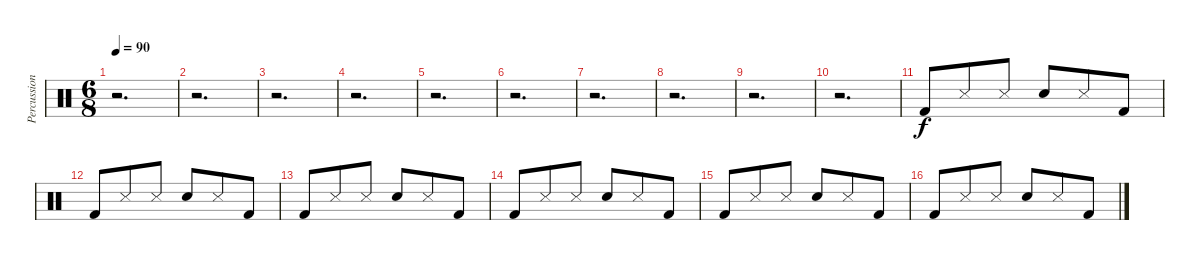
\track ("Percussion" "Percussion") {instrument percussion}
\staff {score}
\articulation defaults
\ts (6 8)
\tempo 90
\clef neutral
\ks c
r.2{d dy f} |
r.2{d} |
r.2{d} |
r.2{d} |
r.2{d} |
r.2{d} |
r.2{d} |
r.2{d} |
r.2{d} |
r.2{d} |
"Kick (hit) 2".8 "Snare (side stick) 3".8 "Snare (side stick) 3".8 "Electric Snare (hit)".8 "Snare (side stick) 3".8 "Kick (hit) 2".8 |
"Kick (hit) 2".8 "Snare (side stick) 3".8 "Snare (side stick) 3".8 "Electric Snare (hit)".8 "Snare (side stick) 3".8 "Kick (hit) 2".8 |
"Kick (hit) 2".8 "Snare (side stick) 3".8 "Snare (side stick) 3".8 "Electric Snare (hit)".8 "Snare (side stick) 3".8 "Kick (hit) 2".8 |
"Kick (hit) 2".8 "Snare (side stick) 3".8 "Snare (side stick) 3".8 "Electric Snare (hit)".8 "Snare (side stick) 3".8 "Kick (hit) 2".8 |
"Kick (hit) 2".8 "Snare (side stick) 3".8 "Snare (side stick) 3".8 "Electric Snare (hit)".8 "Snare (side stick) 3".8 "Kick (hit) 2".8 |
"Kick (hit) 2".8 "Snare (side stick) 3".8 "Snare (side stick) 3".8 "Electric Snare (hit)".8 "Snare (side stick) 3".8 "Kick (hit) 2".8
